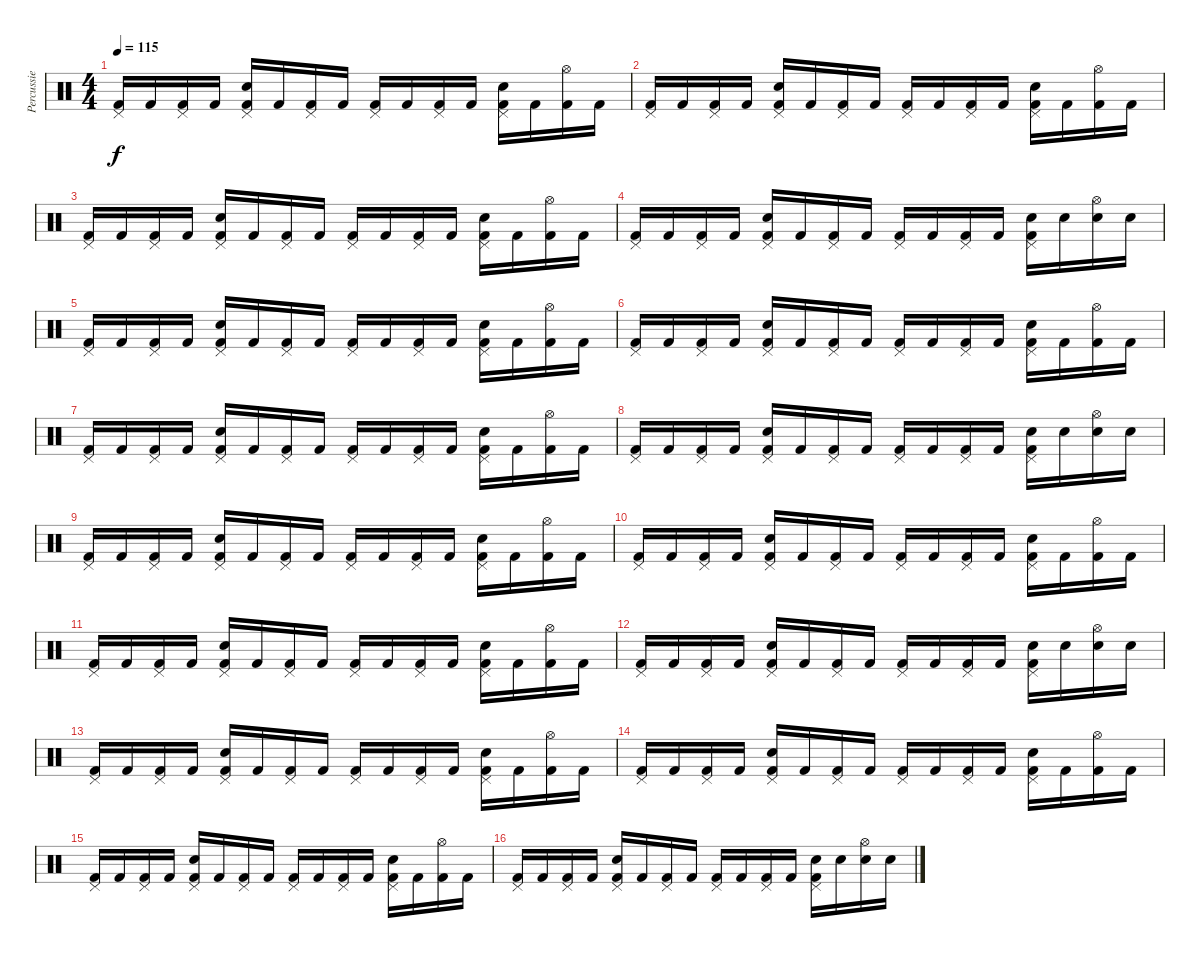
\track ("Percussie" "Percussie") {instrument percussion}
\staff {score}
\articulation defaults
\ts (4 4)
\tempo 115
\clef neutral
\ks c
("Pedal Hi-Hat (hit)" "Kick (hit) 2").16{dy f} "Kick (hit) 2".16 ("Pedal Hi-Hat (hit)" "Kick (hit) 2").16 "Kick (hit) 2".16 ("Pedal Hi-Hat (hit)" "Kick (hit) 2" "Snare (hit) 2").16 "Kick (hit) 2".16 ("Pedal Hi-Hat (hit)" "Kick (hit) 2").16 "Kick (hit) 2".16 ("Pedal Hi-Hat (hit)" "Kick (hit) 2").16 "Kick (hit) 2".16 ("Pedal Hi-Hat (hit)" "Kick (hit) 2").16 "Kick (hit) 2".16 ("Pedal Hi-Hat (hit)" "Kick (hit) 2" "Snare (hit) 2").16 "Kick (hit) 2".16 ("Hi-Hat (open)" "Kick (hit) 2").16 "Kick (hit) 2".16 |
("Pedal Hi-Hat (hit)" "Kick (hit) 2").16 "Kick (hit) 2".16 ("Pedal Hi-Hat (hit)" "Kick (hit) 2").16 "Kick (hit) 2".16 ("Pedal Hi-Hat (hit)" "Kick (hit) 2" "Snare (hit) 2").16 "Kick (hit) 2".16 ("Pedal Hi-Hat (hit)" "Kick (hit) 2").16 "Kick (hit) 2".16 ("Pedal Hi-Hat (hit)" "Kick (hit) 2").16 "Kick (hit) 2".16 ("Pedal Hi-Hat (hit)" "Kick (hit) 2").16 "Kick (hit) 2".16 ("Pedal Hi-Hat (hit)" "Kick (hit) 2" "Snare (hit) 2").16 "Kick (hit) 2".16 ("Hi-Hat (open)" "Kick (hit) 2").16 "Kick (hit) 2".16 |
("Pedal Hi-Hat (hit)" "Kick (hit) 2").16 "Kick (hit) 2".16 ("Pedal Hi-Hat (hit)" "Kick (hit) 2").16 "Kick (hit) 2".16 ("Pedal Hi-Hat (hit)" "Kick (hit) 2" "Snare (hit) 2").16 "Kick (hit) 2".16 ("Pedal Hi-Hat (hit)" "Kick (hit) 2").16 "Kick (hit) 2".16 ("Pedal Hi-Hat (hit)" "Kick (hit) 2").16 "Kick (hit) 2".16 ("Pedal Hi-Hat (hit)" "Kick (hit) 2").16 "Kick (hit) 2".16 ("Pedal Hi-Hat (hit)" "Kick (hit) 2" "Snare (hit) 2").16 "Kick (hit) 2".16 ("Hi-Hat (open)" "Kick (hit) 2").16 "Kick (hit) 2".16 |
("Pedal Hi-Hat (hit)" "Kick (hit) 2").16 "Kick (hit) 2".16 ("Pedal Hi-Hat (hit)" "Kick (hit) 2").16 "Kick (hit) 2".16 ("Pedal Hi-Hat (hit)" "Kick (hit) 2" "Snare (hit) 2").16 "Kick (hit) 2".16 ("Pedal Hi-Hat (hit)" "Kick (hit) 2").16 "Kick (hit) 2".16 ("Pedal Hi-Hat (hit)" "Kick (hit) 2").16 "Kick (hit) 2".16 ("Pedal Hi-Hat (hit)" "Kick (hit) 2").16 "Kick (hit) 2".16 ("Pedal Hi-Hat (hit)" "Kick (hit) 2" "Snare (hit) 2").16 "Snare (hit) 2".16 ("Hi-Hat (open)" "Snare (hit) 2").16 "Snare (hit) 2".16 |
("Pedal Hi-Hat (hit)" "Kick (hit) 2").16 "Kick (hit) 2".16 ("Pedal Hi-Hat (hit)" "Kick (hit) 2").16 "Kick (hit) 2".16 ("Pedal Hi-Hat (hit)" "Kick (hit) 2" "Snare (hit) 2").16 "Kick (hit) 2".16 ("Pedal Hi-Hat (hit)" "Kick (hit) 2").16 "Kick (hit) 2".16 ("Pedal Hi-Hat (hit)" "Kick (hit) 2").16 "Kick (hit) 2".16 ("Pedal Hi-Hat (hit)" "Kick (hit) 2").16 "Kick (hit) 2".16 ("Pedal Hi-Hat (hit)" "Kick (hit) 2" "Snare (hit) 2").16 "Kick (hit) 2".16 ("Hi-Hat (open)" "Kick (hit) 2").16 "Kick (hit) 2".16 |
("Pedal Hi-Hat (hit)" "Kick (hit) 2").16 "Kick (hit) 2".16 ("Pedal Hi-Hat (hit)" "Kick (hit) 2").16 "Kick (hit) 2".16 ("Pedal Hi-Hat (hit)" "Kick (hit) 2" "Snare (hit) 2").16 "Kick (hit) 2".16 ("Pedal Hi-Hat (hit)" "Kick (hit) 2").16 "Kick (hit) 2".16 ("Pedal Hi-Hat (hit)" "Kick (hit) 2").16 "Kick (hit) 2".16 ("Pedal Hi-Hat (hit)" "Kick (hit) 2").16 "Kick (hit) 2".16 ("Pedal Hi-Hat (hit)" "Kick (hit) 2" "Snare (hit) 2").16 "Kick (hit) 2".16 ("Hi-Hat (open)" "Kick (hit) 2").16 "Kick (hit) 2".16 |
("Pedal Hi-Hat (hit)" "Kick (hit) 2").16 "Kick (hit) 2".16 ("Pedal Hi-Hat (hit)" "Kick (hit) 2").16 "Kick (hit) 2".16 ("Pedal Hi-Hat (hit)" "Kick (hit) 2" "Snare (hit) 2").16 "Kick (hit) 2".16 ("Pedal Hi-Hat (hit)" "Kick (hit) 2").16 "Kick (hit) 2".16 ("Pedal Hi-Hat (hit)" "Kick (hit) 2").16 "Kick (hit) 2".16 ("Pedal Hi-Hat (hit)" "Kick (hit) 2").16 "Kick (hit) 2".16 ("Pedal Hi-Hat (hit)" "Kick (hit) 2" "Snare (hit) 2").16 "Kick (hit) 2".16 ("Hi-Hat (open)" "Kick (hit) 2").16 "Kick (hit) 2".16 |
("Pedal Hi-Hat (hit)" "Kick (hit) 2").16 "Kick (hit) 2".16 ("Pedal Hi-Hat (hit)" "Kick (hit) 2").16 "Kick (hit) 2".16 ("Pedal Hi-Hat (hit)" "Kick (hit) 2" "Snare (hit) 2").16 "Kick (hit) 2".16 ("Pedal Hi-Hat (hit)" "Kick (hit) 2").16 "Kick (hit) 2".16 ("Pedal Hi-Hat (hit)" "Kick (hit) 2").16 "Kick (hit) 2".16 ("Pedal Hi-Hat (hit)" "Kick (hit) 2").16 "Kick (hit) 2".16 ("Pedal Hi-Hat (hit)" "Kick (hit) 2" "Snare (hit) 2").16 "Snare (hit) 2".16 ("Hi-Hat (open)" "Snare (hit) 2").16 "Snare (hit) 2".16 |
("Pedal Hi-Hat (hit)" "Kick (hit) 2").16 "Kick (hit) 2".16 ("Pedal Hi-Hat (hit)" "Kick (hit) 2").16 "Kick (hit) 2".16 ("Pedal Hi-Hat (hit)" "Kick (hit) 2" "Snare (hit) 2").16 "Kick (hit) 2".16 ("Pedal Hi-Hat (hit)" "Kick (hit) 2").16 "Kick (hit) 2".16 ("Pedal Hi-Hat (hit)" "Kick (hit) 2").16 "Kick (hit) 2".16 ("Pedal Hi-Hat (hit)" "Kick (hit) 2").16 "Kick (hit) 2".16 ("Pedal Hi-Hat (hit)" "Kick (hit) 2" "Snare (hit) 2").16 "Kick (hit) 2".16 ("Hi-Hat (open)" "Kick (hit) 2").16 "Kick (hit) 2".16 |
("Pedal Hi-Hat (hit)" "Kick (hit) 2").16 "Kick (hit) 2".16 ("Pedal Hi-Hat (hit)" "Kick (hit) 2").16 "Kick (hit) 2".16 ("Pedal Hi-Hat (hit)" "Kick (hit) 2" "Snare (hit) 2").16 "Kick (hit) 2".16 ("Pedal Hi-Hat (hit)" "Kick (hit) 2").16 "Kick (hit) 2".16 ("Pedal Hi-Hat (hit)" "Kick (hit) 2").16 "Kick (hit) 2".16 ("Pedal Hi-Hat (hit)" "Kick (hit) 2").16 "Kick (hit) 2".16 ("Pedal Hi-Hat (hit)" "Kick (hit) 2" "Snare (hit) 2").16 "Kick (hit) 2".16 ("Hi-Hat (open)" "Kick (hit) 2").16 "Kick (hit) 2".16 |
("Pedal Hi-Hat (hit)" "Kick (hit) 2").16 "Kick (hit) 2".16 ("Pedal Hi-Hat (hit)" "Kick (hit) 2").16 "Kick (hit) 2".16 ("Pedal Hi-Hat (hit)" "Kick (hit) 2" "Snare (hit) 2").16 "Kick (hit) 2".16 ("Pedal Hi-Hat (hit)" "Kick (hit) 2").16 "Kick (hit) 2".16 ("Pedal Hi-Hat (hit)" "Kick (hit) 2").16 "Kick (hit) 2".16 ("Pedal Hi-Hat (hit)" "Kick (hit) 2").16 "Kick (hit) 2".16 ("Pedal Hi-Hat (hit)" "Kick (hit) 2" "Snare (hit) 2").16 "Kick (hit) 2".16 ("Hi-Hat (open)" "Kick (hit) 2").16 "Kick (hit) 2".16 |
("Pedal Hi-Hat (hit)" "Kick (hit) 2").16 "Kick (hit) 2".16 ("Pedal Hi-Hat (hit)" "Kick (hit) 2").16 "Kick (hit) 2".16 ("Pedal Hi-Hat (hit)" "Kick (hit) 2" "Snare (hit) 2").16 "Kick (hit) 2".16 ("Pedal Hi-Hat (hit)" "Kick (hit) 2").16 "Kick (hit) 2".16 ("Pedal Hi-Hat (hit)" "Kick (hit) 2").16 "Kick (hit) 2".16 ("Pedal Hi-Hat (hit)" "Kick (hit) 2").16 "Kick (hit) 2".16 ("Pedal Hi-Hat (hit)" "Kick (hit) 2" "Snare (hit) 2").16 "Snare (hit) 2".16 ("Hi-Hat (open)" "Snare (hit) 2").16 "Snare (hit) 2".16 |
("Pedal Hi-Hat (hit)" "Kick (hit) 2").16 "Kick (hit) 2".16 ("Pedal Hi-Hat (hit)" "Kick (hit) 2").16 "Kick (hit) 2".16 ("Pedal Hi-Hat (hit)" "Kick (hit) 2" "Snare (hit) 2").16 "Kick (hit) 2".16 ("Pedal Hi-Hat (hit)" "Kick (hit) 2").16 "Kick (hit) 2".16 ("Pedal Hi-Hat (hit)" "Kick (hit) 2").16 "Kick (hit) 2".16 ("Pedal Hi-Hat (hit)" "Kick (hit) 2").16 "Kick (hit) 2".16 ("Pedal Hi-Hat (hit)" "Kick (hit) 2" "Snare (hit) 2").16 "Kick (hit) 2".16 ("Hi-Hat (open)" "Kick (hit) 2").16 "Kick (hit) 2".16 |
("Pedal Hi-Hat (hit)" "Kick (hit) 2").16 "Kick (hit) 2".16 ("Pedal Hi-Hat (hit)" "Kick (hit) 2").16 "Kick (hit) 2".16 ("Pedal Hi-Hat (hit)" "Kick (hit) 2" "Snare (hit) 2").16 "Kick (hit) 2".16 ("Pedal Hi-Hat (hit)" "Kick (hit) 2").16 "Kick (hit) 2".16 ("Pedal Hi-Hat (hit)" "Kick (hit) 2").16 "Kick (hit) 2".16 ("Pedal Hi-Hat (hit)" "Kick (hit) 2").16 "Kick (hit) 2".16 ("Pedal Hi-Hat (hit)" "Kick (hit) 2" "Snare (hit) 2").16 "Kick (hit) 2".16 ("Hi-Hat (open)" "Kick (hit) 2").16 "Kick (hit) 2".16 |
("Pedal Hi-Hat (hit)" "Kick (hit) 2").16 "Kick (hit) 2".16 ("Pedal Hi-Hat (hit)" "Kick (hit) 2").16 "Kick (hit) 2".16 ("Pedal Hi-Hat (hit)" "Kick (hit) 2" "Snare (hit) 2").16 "Kick (hit) 2".16 ("Pedal Hi-Hat (hit)" "Kick (hit) 2").16 "Kick (hit) 2".16 ("Pedal Hi-Hat (hit)" "Kick (hit) 2").16 "Kick (hit) 2".16 ("Pedal Hi-Hat (hit)" "Kick (hit) 2").16 "Kick (hit) 2".16 ("Pedal Hi-Hat (hit)" "Kick (hit) 2" "Snare (hit) 2").16 "Kick (hit) 2".16 ("Hi-Hat (open)" "Kick (hit) 2").16 "Kick (hit) 2".16 |
("Pedal Hi-Hat (hit)" "Kick (hit) 2").16 "Kick (hit) 2".16 ("Pedal Hi-Hat (hit)" "Kick (hit) 2").16 "Kick (hit) 2".16 ("Pedal Hi-Hat (hit)" "Kick (hit) 2" "Snare (hit) 2").16 "Kick (hit) 2".16 ("Pedal Hi-Hat (hit)" "Kick (hit) 2").16 "Kick (hit) 2".16 ("Pedal Hi-Hat (hit)" "Kick (hit) 2").16 "Kick (hit) 2".16 ("Pedal Hi-Hat (hit)" "Kick (hit) 2").16 "Kick (hit) 2".16 ("Pedal Hi-Hat (hit)" "Kick (hit) 2" "Snare (hit) 2").16 "Snare (hit) 2".16 ("Hi-Hat (open)" "Snare (hit) 2").16 "Snare (hit) 2".16
